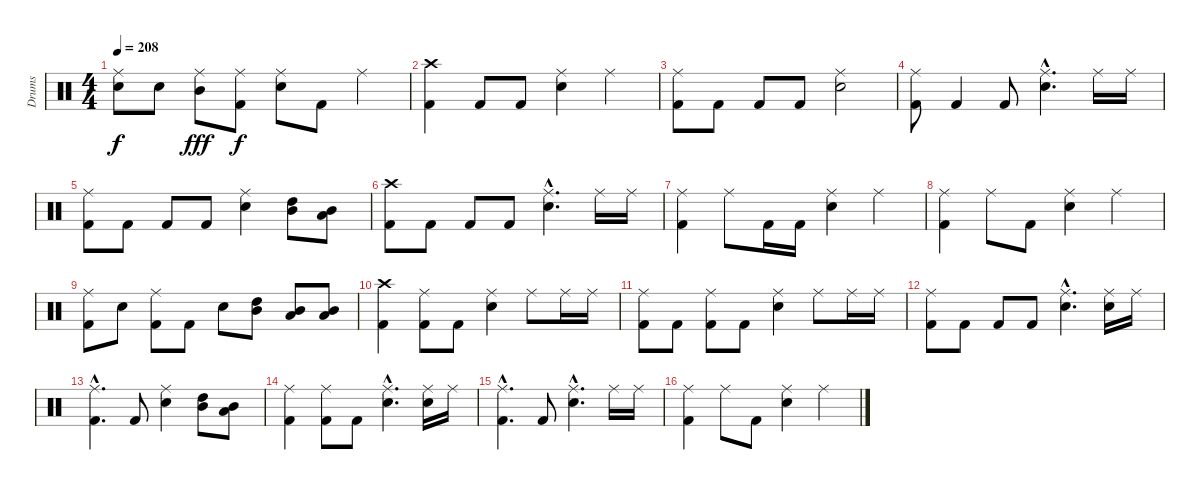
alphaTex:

\track ("Drums" "Drums") {instrument percussion}
\staff {score}
\articulation defaults
\ts (4 4)
\tempo 208
\clef neutral
\ks c
("Ride (middle)" "Electric Snare (hit)").8{dy f} "Electric Snare (hit)".8 ("Ride (middle)" "Mid Tom (hit)").8{dy fff} ("Ride (middle)" "Kick (hit) 2").8{dy f} ("Ride (middle)" "Electric Snare (hit)").8 "Kick (hit) 2".8 "Ride (middle)".4 |
("Crash high (hit)" "Kick (hit) 2").4 "Kick (hit) 2".8 "Kick (hit) 2".8 ("Ride (middle)" "Electric Snare (hit)").4 "Ride (middle)".4 |
("Ride (middle)" "Kick (hit) 2").8 "Kick (hit) 2".8 "Kick (hit) 2".8 "Kick (hit) 2".8 ("Ride (middle)" "Electric Snare (hit)").2 |
("Ride (middle)" "Kick (hit) 2").8 "Kick (hit) 2".4 "Kick (hit) 2".8 ("Ride (middle)"{hac} "Electric Snare (hit)"{hac}).4{d} "Ride (middle)".16 "Ride (middle)".16 |
("Ride (middle)" "Kick (hit) 2").8 "Kick (hit) 2".8 "Kick (hit) 2".8 "Kick (hit) 2".8 ("Ride (middle)" "Electric Snare (hit)").4 ("High Tom (hit)" "Mid Tom (hit)").8 ("Mid Tom (hit)" "Low Tom (hit)").8 |
("Crash high (hit)" "Kick (hit) 2").8 "Kick (hit) 2".8 "Kick (hit) 2".8 "Kick (hit) 2".8 ("Ride (middle)"{hac} "Electric Snare (hit)"{hac}).4{d} "Ride (middle)".16 "Ride (middle)".16 |
("Ride (middle)" "Kick (hit) 2").4 "Ride (middle)".8 "Kick (hit) 2".16 "Kick (hit) 2".16 ("Ride (middle)" "Electric Snare (hit)").4 "Ride (middle)".4 |
("Ride (middle)" "Kick (hit) 2").4 "Ride (middle)".8 "Kick (hit) 2".8 ("Ride (middle)" "Electric Snare (hit)").4 "Ride (middle)".4 |
("Ride (middle)" "Kick (hit) 2").8 "Electric Snare (hit)".8 ("Ride (middle)" "Kick (hit) 2").8 "Kick (hit) 2".8 "Electric Snare (hit)".8 ("High Tom (hit)" "Mid Tom (hit)").8 ("Mid Tom (hit)" "Low Tom (hit)").8 ("Mid Tom (hit)" "Low Tom (hit)").8 |
("Crash high (hit)" "Kick (hit) 2").4 ("Ride (middle)" "Kick (hit) 2").8 "Kick (hit) 2".8 ("Ride (middle)" "Electric Snare (hit)").4 "Ride (middle)".8 "Ride (middle)".16 "Ride (middle)".16 |
("Ride (middle)" "Kick (hit) 2").8 "Kick (hit) 2".8 ("Ride (middle)" "Kick (hit) 2").8 "Kick (hit) 2".8 ("Ride (middle)" "Electric Snare (hit)").4 "Ride (middle)".8 "Ride (middle)".16 "Ride (middle)".16 |
("Ride (middle)" "Kick (hit) 2").8 "Kick (hit) 2".8 "Kick (hit) 2".8 "Kick (hit) 2".8 ("Ride (middle)"{hac} "Electric Snare (hit)"{hac}).4{d} ("Ride (middle)" "Electric Snare (hit)").16 "Ride (middle)".16 |
("Ride (middle)"{hac} "Kick (hit) 2"{hac}).4{d} "Kick (hit) 2".8 ("Ride (middle)" "Electric Snare (hit)").4 ("High Tom (hit)" "Mid Tom (hit)").8 ("Mid Tom (hit)" "Low Tom (hit)").8 |
("Ride (middle)" "Kick (hit) 2").4 ("Ride (middle)" "Kick (hit) 2").8 "Kick (hit) 2".8 ("Ride (middle)"{hac} "Electric Snare (hit)"{hac}).4{d} ("Ride (middle)" "Electric Snare (hit)").16 "Ride (middle)".16 |
("Ride (middle)"{hac} "Kick (hit) 2"{hac}).4{d} "Kick (hit) 2".8 ("Ride (middle)"{hac} "Electric Snare (hit)"{hac}).4{d} "Ride (middle)".16 "Ride (middle)".16 |
("Ride (middle)" "Kick (hit) 2").4 "Ride (middle)".8 "Kick (hit) 2".8 ("Ride (middle)" "Electric Snare (hit)").4 "Ride (middle)".4
